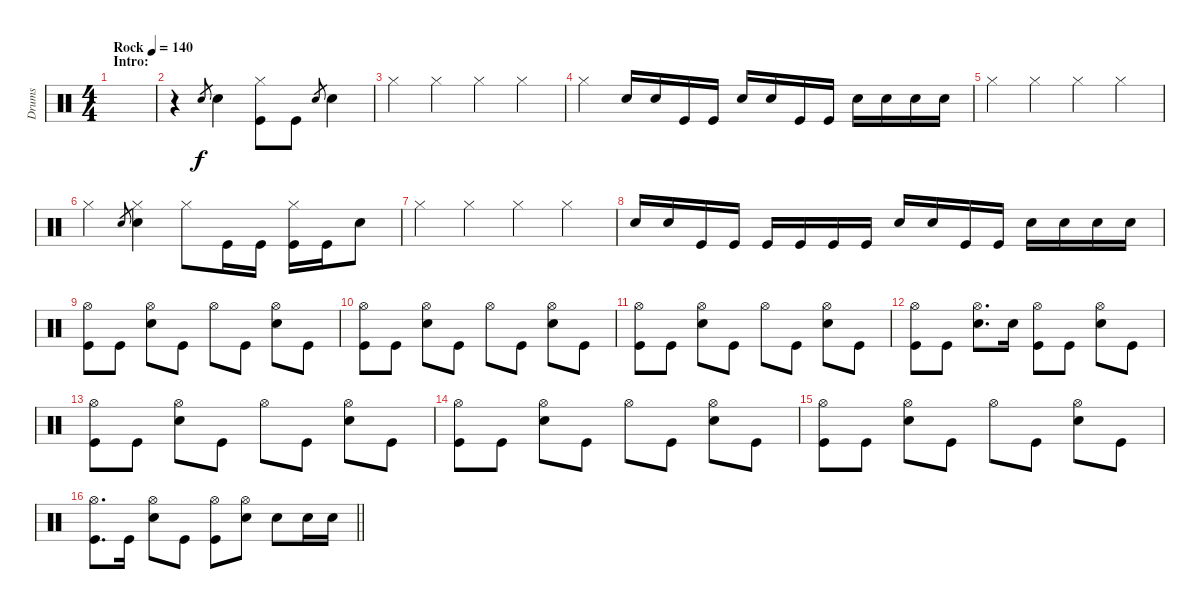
\track ("Drums" "Drums") {instrument percussion}
\staff {score}
\articulation defaults
\ts (4 4)
\section ("" "Intro:")
\tempo (140 "Rock")
\clef neutral
\ks c
|
r.4 "Snare (hit) 2".8{gr} "Snare (hit) 2".4 ("Kick (hit)" "Hi-Hat (closed)").8 "Kick (hit)".8 "Snare (hit) 2".8{gr} "Snare (hit) 2".4 |
"Hi-Hat (closed)".4 "Hi-Hat (closed)".4 "Hi-Hat (closed)".4 "Hi-Hat (closed)".4 |
"Hi-Hat (closed)".4 "Snare (hit) 2".16 "Snare (hit) 2".16 "Kick (hit)".16 "Kick (hit)".16 "Snare (hit) 2".16 "Snare (hit) 2".16 "Kick (hit)".16 "Kick (hit)".16 "Snare (hit) 2".16 "Snare (hit) 2".16 "Snare (hit) 2".16 "Snare (hit) 2".16 |
"Hi-Hat (closed)".4 "Hi-Hat (closed)".4 "Hi-Hat (closed)".4 "Hi-Hat (closed)".4 |
"Hi-Hat (closed)".4 "Snare (hit) 2".8{gr} ("Snare (hit) 2" "Hi-Hat (closed)").4 "Hi-Hat (closed)".8 "Kick (hit)".16 "Kick (hit)".16 ("Hi-Hat (closed)" "Kick (hit)").16 "Kick (hit)".16 "Snare (hit) 2".8 |
"Hi-Hat (closed)".4 "Hi-Hat (closed)".4 "Hi-Hat (closed)".4 "Hi-Hat (closed)".4 |
"Snare (hit) 2".16 "Snare (hit) 2".16 "Kick (hit)".16 "Kick (hit)".16 "Kick (hit)".16 "Kick (hit)".16 "Kick (hit)".16 "Kick (hit)".16 "Snare (hit) 2".16 "Snare (hit) 2".16 "Kick (hit)".16 "Kick (hit)".16 "Snare (hit) 2".16 "Snare (hit) 2".16 "Snare (hit) 2".16 "Snare (hit) 2".16 |
("Hi-Hat (open)" "Kick (hit)").8 "Kick (hit)".8 ("Hi-Hat (open)" "Snare (hit) 2").8 "Kick (hit)".8 "Hi-Hat (open)".8 "Kick (hit)".8 ("Hi-Hat (open)" "Snare (hit) 2").8 "Kick (hit)".8 |
("Hi-Hat (open)" "Kick (hit)").8 "Kick (hit)".8 ("Snare (hit) 2" "Hi-Hat (open)").8 "Kick (hit)".8 "Hi-Hat (open)".8 "Kick (hit)".8 ("Snare (hit) 2" "Hi-Hat (open)").8 "Kick (hit)".8 |
("Hi-Hat (open)" "Kick (hit)").8 "Kick (hit)".8 ("Hi-Hat (open)" "Snare (hit) 2").8 "Kick (hit)".8 "Hi-Hat (open)".8 "Kick (hit)".8 ("Hi-Hat (open)" "Snare (hit) 2").8 "Kick (hit)".8 |
("Hi-Hat (open)" "Kick (hit)").8 "Kick (hit)".8 ("Snare (hit) 2" "Hi-Hat (open)").8{d} "Snare (hit) 2".16 ("Kick (hit)" "Hi-Hat (open)").8 "Kick (hit)".8 ("Snare (hit) 2" "Hi-Hat (open)").8 "Kick (hit)".8 |
("Hi-Hat (open)" "Kick (hit)").8 "Kick (hit)".8 ("Hi-Hat (open)" "Snare (hit) 2").8 "Kick (hit)".8 "Hi-Hat (open)".8 "Kick (hit)".8 ("Hi-Hat (open)" "Snare (hit) 2").8 "Kick (hit)".8 |
("Hi-Hat (open)" "Kick (hit)").8 "Kick (hit)".8 ("Snare (hit) 2" "Hi-Hat (open)").8 "Kick (hit)".8 "Hi-Hat (open)".8 "Kick (hit)".8 ("Snare (hit) 2" "Hi-Hat (open)").8 "Kick (hit)".8 |
("Hi-Hat (open)" "Kick (hit)").8 "Kick (hit)".8 ("Hi-Hat (open)" "Snare (hit) 2").8 "Kick (hit)".8 "Hi-Hat (open)".8 "Kick (hit)".8 ("Hi-Hat (open)" "Snare (hit) 2").8 "Kick (hit)".8 |
\barLineRight lightlight
("Kick (hit)" "Hi-Hat (open)").8{d} "Kick (hit)".16 ("Snare (hit) 2" "Hi-Hat (open)").8 "Kick (hit)".8 ("Hi-Hat (open)" "Kick (hit)").8 ("Hi-Hat (open)" "Snare (hit) 2").8 "Snare (hit) 2".8 "Snare (hit) 2".16 "Snare (hit) 2".16
